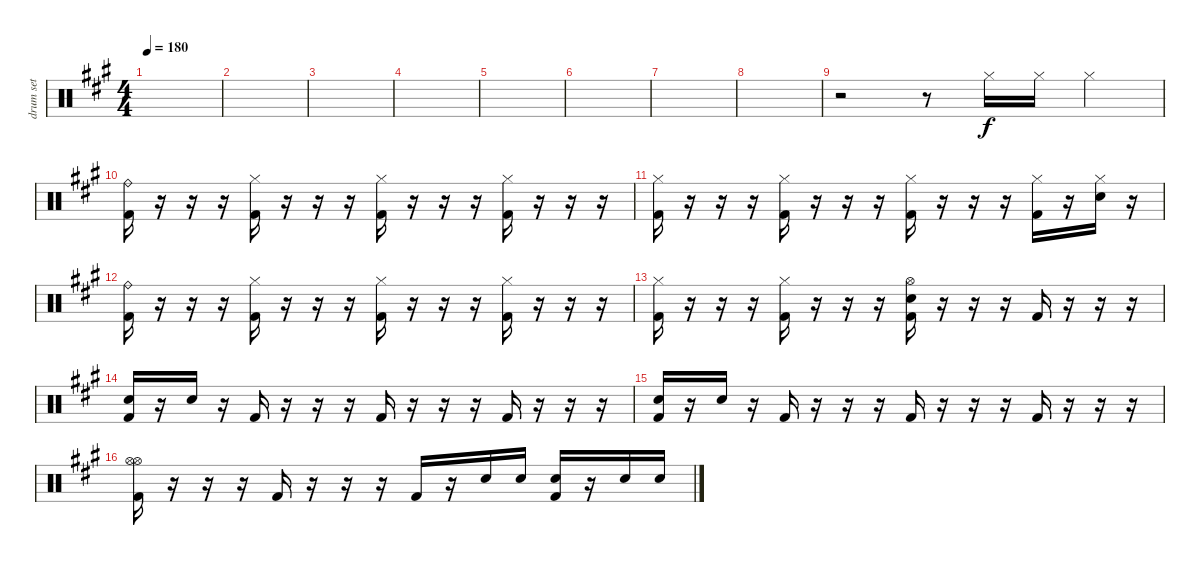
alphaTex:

\track ("drum set" "drum set") {instrument percussion}
\staff {score}
\articulation defaults
\ts (4 4)
\tempo 180
\clef neutral
\ks a
|
|
|
|
|
|
|
|
r.2 r.8 "Hi-Hat (closed)".16 "Hi-Hat (closed)".16 "Hi-Hat (closed)".4 |
("Ride (bell)" "Kick (hit) 2").16 r.16 r.16 r.16 ("Hi-Hat (closed)" "Kick (hit) 2").16 r.16 r.16 r.16 ("Hi-Hat (closed)" "Kick (hit) 2").16 r.16 r.16 r.16 ("Hi-Hat (closed)" "Kick (hit) 2").16 r.16 r.16 r.16 |
("Hi-Hat (closed)" "Kick (hit) 2").16 r.16 r.16 r.16 ("Hi-Hat (closed)" "Kick (hit) 2").16 r.16 r.16 r.16 ("Hi-Hat (closed)" "Kick (hit) 2").16 r.16 r.16 r.16 ("Hi-Hat (closed)" "Kick (hit) 2").16 r.16 ("Hi-Hat (closed)" "Snare (hit) 2").16 r.16 |
("Ride (bell)" "Kick (hit) 2").16 r.16 r.16 r.16 ("Hi-Hat (closed)" "Kick (hit) 2").16 r.16 r.16 r.16 ("Hi-Hat (closed)" "Kick (hit) 2").16 r.16 r.16 r.16 ("Hi-Hat (closed)" "Kick (hit) 2").16 r.16 r.16 r.16 |
("Hi-Hat (closed)" "Kick (hit) 2").16 r.16 r.16 r.16 ("Hi-Hat (closed)" "Kick (hit) 2").16 r.16 r.16 r.16 ("Hi-Hat (open)" "Snare (hit) 2" "Kick (hit) 2").16 r.16 r.16 r.16 "Kick (hit) 2".16 r.16 r.16 r.16 |
("Snare (hit) 2" "Kick (hit) 2").16 r.16 "Snare (hit) 2".16 r.16 "Kick (hit) 2".16 r.16 r.16 r.16 "Kick (hit) 2".16 r.16 r.16 r.16 "Kick (hit) 2".16 r.16 r.16 r.16 |
("Snare (hit) 2" "Kick (hit) 2").16 r.16 "Snare (hit) 2".16 r.16 "Kick (hit) 2".16 r.16 r.16 r.16 "Kick (hit) 2".16 r.16 r.16 r.16 "Kick (hit) 2".16 r.16 r.16 r.16 |
("Hi-Hat (open)" "Hi-Hat (open)" "Kick (hit) 2").16 r.16 r.16 r.16 "Kick (hit) 2".16 r.16 r.16 r.16 "Kick (hit) 2".16 r.16 "Snare (hit) 2".16 "Snare (hit) 2".16 ("Snare (hit) 2" "Kick (hit) 2").16 r.16 "Snare (hit) 2".16 "Snare (hit) 2".16
